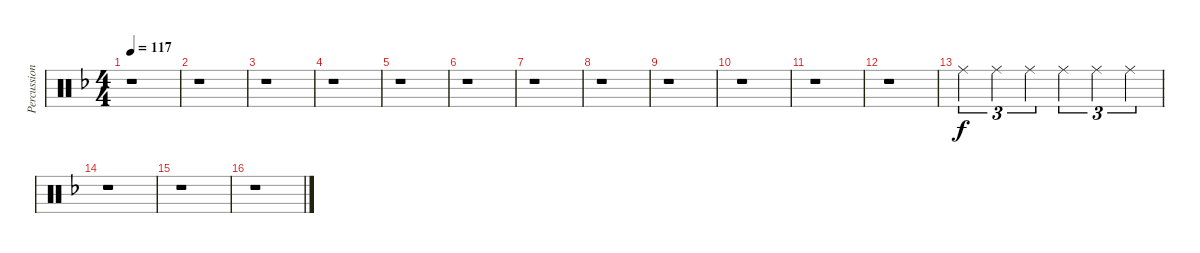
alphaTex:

\track ("Percussions" "Percussion") {instrument percussion}
\staff {score}
\articulation defaults
\ts (4 4)
\tempo 117
\clef neutral
\ks f
r.1{dy f} |
r.1 |
r.1 |
r.1 |
r.1 |
r.1 |
r.1 |
r.1 |
r.1 |
r.1 |
r.1 |
r.1 |
"Ride (middle)".4{tu (3 2)} "Ride (middle)".4{tu (3 2)} "Ride (middle)".4{tu (3 2)} "Ride (middle)".4{tu (3 2)} "Ride (middle)".4{tu (3 2)} "Ride (middle)".4{tu (3 2)} |
r.1 |
r.1 |
r.1
